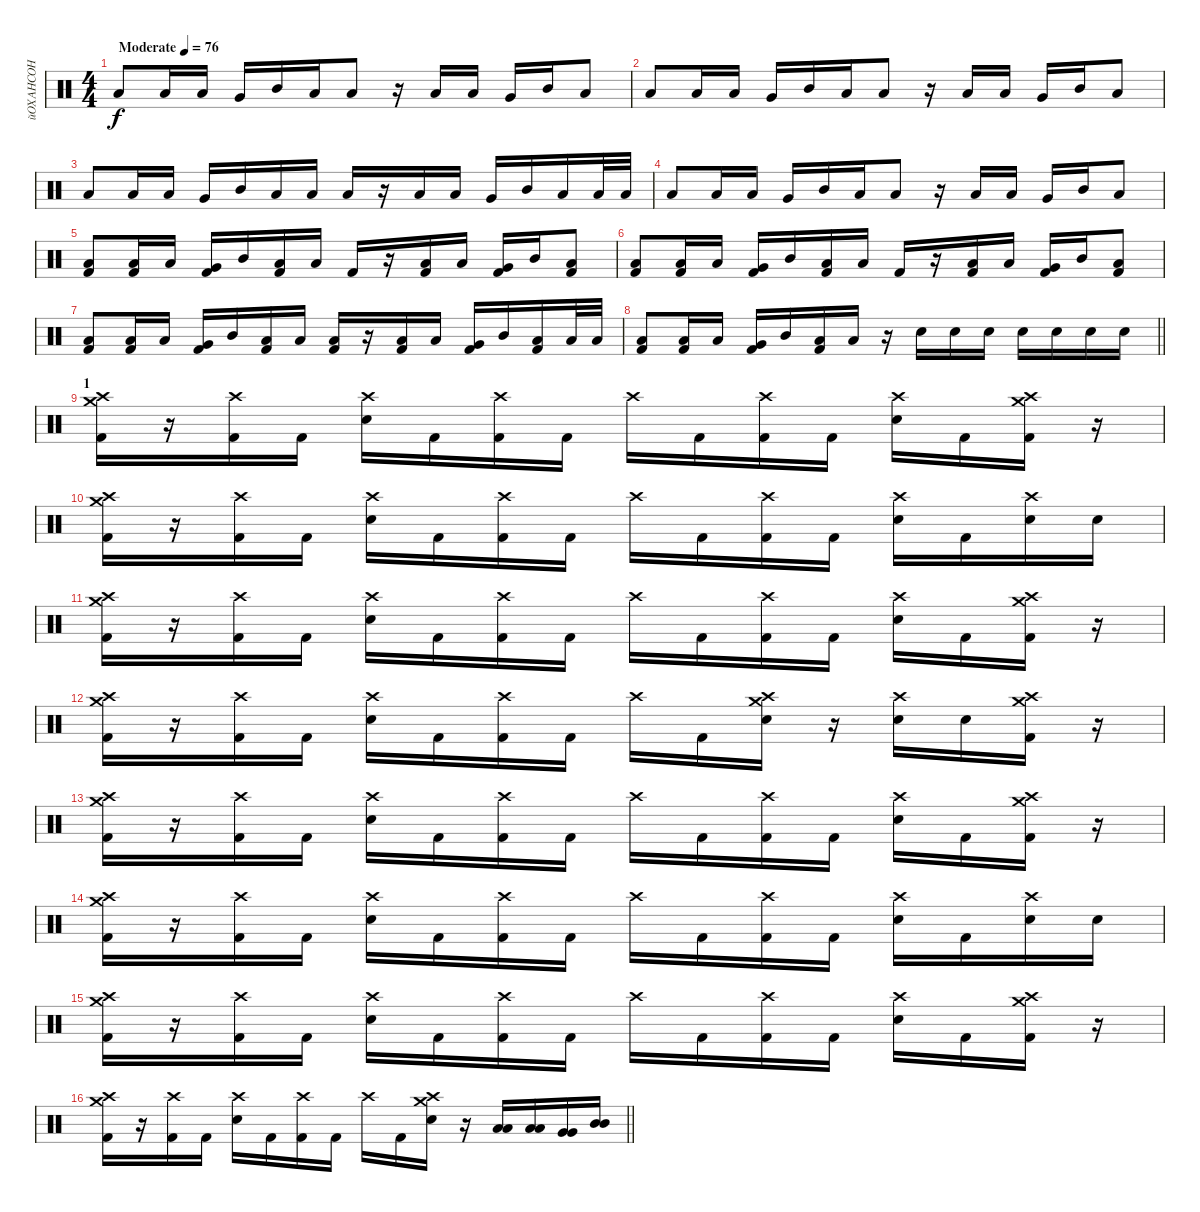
\track ("йОХАНСОН" "йОХАНСОН") {instrument percussion}
\staff {score}
\articulation defaults
\ts (4 4)
\tempo (76 "Moderate")
\clef neutral
\ks c "Low Floor Tom (hit)".8{dy f volume 0} "Low Floor Tom (hit)".16{volume 13} "Low Floor Tom (hit)".16 "Very Low Tom (hit)".16 "Mid Tom (hit)".16 "Low Floor Tom (hit)".16 "Low Floor Tom (hit)".8
r.16 "Low Floor Tom (hit)".16 "Low Floor Tom (hit)".16 "Very Low Tom (hit)".16 "Mid Tom (hit)".16 "Low Floor Tom (hit)".8 |
"Low Floor Tom (hit)".8 "Low Floor Tom (hit)".16 "Low Floor Tom (hit)".16 "Very Low Tom (hit)".16 "Mid Tom (hit)".16 "Low Floor Tom (hit)".16 "Low Floor Tom (hit)".8 r.16 "Low Floor Tom (hit)".16 "Low Floor Tom (hit)".16 "Very Low Tom (hit)".16 "Mid Tom (hit)".16 "Low Floor Tom (hit)".8 |
"Low Floor Tom (hit)".8 "Low Floor Tom (hit)".16 "Low Floor Tom (hit)".16 "Very Low Tom (hit)".16 "Mid Tom (hit)".16 "Low Floor Tom (hit)".16 "Low Floor Tom (hit)".16 "Low Floor Tom (hit)".16 r.16 "Low Floor Tom (hit)".16 "Low Floor Tom (hit)".16 "Very Low Tom (hit)".16 "Mid Tom (hit)".16 "Low Floor Tom (hit)".16 "Low Floor Tom (hit)".32 "Low Floor Tom (hit)".32 |
"Low Floor Tom (hit)".8 "Low Floor Tom (hit)".16 "Low Floor Tom (hit)".16 "Very Low Tom (hit)".16 "Mid Tom (hit)".16 "Low Floor Tom (hit)".16 "Low Floor Tom (hit)".8 r.16 "Low Floor Tom (hit)".16 "Low Floor Tom (hit)".16 "Very Low Tom (hit)".16 "Mid Tom (hit)".16 "Low Floor Tom (hit)".8 |
("Low Floor Tom (hit)" "Kick (hit) 2").8 ("Low Floor Tom (hit)" "Kick (hit) 2").16 "Low Floor Tom (hit)".16 ("Very Low Tom (hit)" "Kick (hit) 2").16 "Mid Tom (hit)".16 ("Low Floor Tom (hit)" "Kick (hit) 2").16 "Low Floor Tom (hit)".16 "Kick (hit) 2".16 r.16 ("Low Floor Tom (hit)" "Kick (hit) 2").16 "Low Floor Tom (hit)".16 ("Very Low Tom (hit)" "Kick (hit) 2").16 "Mid Tom (hit)".16 ("Low Floor Tom (hit)" "Kick (hit) 2").8 |
("Low Floor Tom (hit)" "Kick (hit) 2").8 ("Low Floor Tom (hit)" "Kick (hit) 2").16 "Low Floor Tom (hit)".16 ("Very Low Tom (hit)" "Kick (hit) 2").16 "Mid Tom (hit)".16 ("Low Floor Tom (hit)" "Kick (hit) 2").16 "Low Floor Tom (hit)".16 "Kick (hit) 2".16 r.16 ("Low Floor Tom (hit)" "Kick (hit) 2").16 "Low Floor Tom (hit)".16 ("Very Low Tom (hit)" "Kick (hit) 2").16 "Mid Tom (hit)".16 ("Low Floor Tom (hit)" "Kick (hit) 2").8 |
("Low Floor Tom (hit)" "Kick (hit) 2").8 ("Low Floor Tom (hit)" "Kick (hit) 2").16 "Low Floor Tom (hit)".16 ("Very Low Tom (hit)" "Kick (hit) 2").16 "Mid Tom (hit)".16 ("Low Floor Tom (hit)" "Kick (hit) 2").16 "Low Floor Tom (hit)".16 ("Low Floor Tom (hit)" "Kick (hit) 2").16 r.16 ("Low Floor Tom (hit)" "Kick (hit) 2").16 "Low Floor Tom (hit)".16 ("Very Low Tom (hit)" "Kick (hit) 2").16 "Mid Tom (hit)".16 ("Low Floor Tom (hit)" "Kick (hit) 2").16 "Low Floor Tom (hit)".32 "Low Floor Tom (hit)".32 |
\barLineRight lightlight
("Low Floor Tom (hit)" "Kick (hit) 2").8 ("Low Floor Tom (hit)" "Kick (hit) 2").16 "Low Floor Tom (hit)".16 ("Very Low Tom (hit)" "Kick (hit) 2").16 "Mid Tom (hit)".16 ("Low Floor Tom (hit)" "Kick (hit) 2").16 "Low Floor Tom (hit)".16 r.16 "Snare (hit) 2".16 "Snare (hit) 2".16 "Snare (hit) 2".16 "Snare (hit) 2".16 "Snare (hit) 2".16 "Snare (hit) 2".16 "Snare (hit) 2".16 |
\section ("" "1")
("Crash high (hit)" "Crash medium (hit)" "Kick (hit) 2").16 r.16 ("Crash high (hit)" "Kick (hit) 2").16 "Kick (hit) 2".16 ("Crash high (hit)" "Snare (hit) 2").16 "Kick (hit) 2".16 ("Crash high (hit)" "Kick (hit) 2").16 "Kick (hit) 2".16 "Crash high (hit)".16 "Kick (hit) 2".16 ("Crash high (hit)" "Kick (hit) 2").16 "Kick (hit) 2".16 ("Crash high (hit)" "Snare (hit) 2").16 "Kick (hit) 2".16 ("Crash high (hit)" "Crash medium (hit)" "Kick (hit) 2").16 r.16 |
("Crash high (hit)" "Crash medium (hit)" "Kick (hit) 2").16 r.16 ("Crash high (hit)" "Kick (hit) 2").16 "Kick (hit) 2".16 ("Crash high (hit)" "Snare (hit) 2").16 "Kick (hit) 2".16 ("Crash high (hit)" "Kick (hit) 2").16 "Kick (hit) 2".16 "Crash high (hit)".16 "Kick (hit) 2".16 ("Crash high (hit)" "Kick (hit) 2").16 "Kick (hit) 2".16 ("Crash high (hit)" "Snare (hit) 2").16 "Kick (hit) 2".16 ("Crash high (hit)" "Snare (hit) 2").16 "Snare (hit) 2".16 |
("Crash high (hit)" "Crash medium (hit)" "Kick (hit) 2").16 r.16 ("Crash high (hit)" "Kick (hit) 2").16 "Kick (hit) 2".16 ("Crash high (hit)" "Snare (hit) 2").16 "Kick (hit) 2".16 ("Crash high (hit)" "Kick (hit) 2").16 "Kick (hit) 2".16 "Crash high (hit)".16 "Kick (hit) 2".16 ("Crash high (hit)" "Kick (hit) 2").16 "Kick (hit) 2".16 ("Crash high (hit)" "Snare (hit) 2").16 "Kick (hit) 2".16 ("Crash high (hit)" "Crash medium (hit)" "Kick (hit) 2").16 r.16 |
("Crash high (hit)" "Crash medium (hit)" "Kick (hit) 2").16 r.16 ("Crash high (hit)" "Kick (hit) 2").16 "Kick (hit) 2".16 ("Crash high (hit)" "Snare (hit) 2").16 "Kick (hit) 2".16 ("Crash high (hit)" "Kick (hit) 2").16 "Kick (hit) 2".16 "Crash high (hit)".16 "Kick (hit) 2".16 ("Crash high (hit)" "Crash medium (hit)" "Snare (hit) 2").16 r.16 ("Crash high (hit)" "Snare (hit) 2").16 "Snare (hit) 2".16 ("Crash high (hit)" "Crash medium (hit)" "Kick (hit) 2").16 r.16 |
("Crash high (hit)" "Crash medium (hit)" "Kick (hit) 2").16 r.16 ("Crash high (hit)" "Kick (hit) 2").16 "Kick (hit) 2".16 ("Crash high (hit)" "Snare (hit) 2").16 "Kick (hit) 2".16 ("Crash high (hit)" "Kick (hit) 2").16 "Kick (hit) 2".16 "Crash high (hit)".16 "Kick (hit) 2".16 ("Crash high (hit)" "Kick (hit) 2").16 "Kick (hit) 2".16 ("Crash high (hit)" "Snare (hit) 2").16 "Kick (hit) 2".16 ("Crash high (hit)" "Crash medium (hit)" "Kick (hit) 2").16 r.16 |
("Crash high (hit)" "Crash medium (hit)" "Kick (hit) 2").16 r.16 ("Crash high (hit)" "Kick (hit) 2").16 "Kick (hit) 2".16 ("Crash high (hit)" "Snare (hit) 2").16 "Kick (hit) 2".16 ("Crash high (hit)" "Kick (hit) 2").16 "Kick (hit) 2".16 "Crash high (hit)".16 "Kick (hit) 2".16 ("Crash high (hit)" "Kick (hit) 2").16 "Kick (hit) 2".16 ("Crash high (hit)" "Snare (hit) 2").16 "Kick (hit) 2".16 ("Crash high (hit)" "Snare (hit) 2").16 "Snare (hit) 2".16 |
("Crash high (hit)" "Crash medium (hit)" "Kick (hit) 2").16 r.16 ("Crash high (hit)" "Kick (hit) 2").16 "Kick (hit) 2".16 ("Crash high (hit)" "Snare (hit) 2").16 "Kick (hit) 2".16 ("Crash high (hit)" "Kick (hit) 2").16 "Kick (hit) 2".16 "Crash high (hit)".16 "Kick (hit) 2".16 ("Crash high (hit)" "Kick (hit) 2").16 "Kick (hit) 2".16 ("Crash high (hit)" "Snare (hit) 2").16 "Kick (hit) 2".16 ("Crash high (hit)" "Crash medium (hit)" "Kick (hit) 2").16 r.16 |
\barLineRight lightlight
("Crash high (hit)" "Crash medium (hit)" "Kick (hit) 2").16 r.16 ("Crash high (hit)" "Kick (hit) 2").16 "Kick (hit) 2".16 ("Crash high (hit)" "Snare (hit) 2").16 "Kick (hit) 2".16 ("Crash high (hit)" "Kick (hit) 2").16 "Kick (hit) 2".16 "Crash high (hit)".16 "Kick (hit) 2".16 ("Crash high (hit)" "Crash medium (hit)" "Snare (hit) 2").16 r.16 ("Low Floor Tom (hit)" "Low Floor Tom (hit)").16 ("Low Floor Tom (hit)" "Low Floor Tom (hit)").16 ("Very Low Tom (hit)" "Very Low Tom (hit)").16 ("Mid Tom (hit)" "Mid Tom (hit)").16
